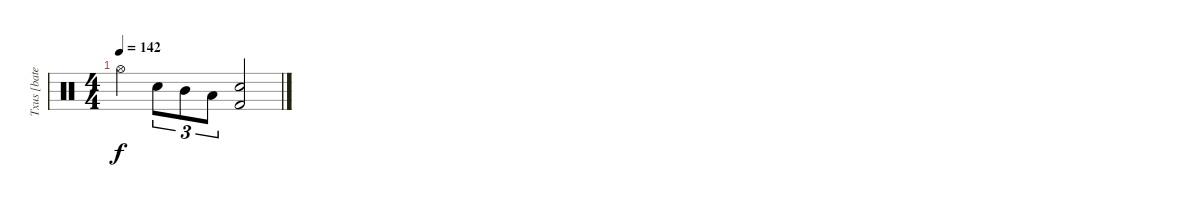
\track ("Txus [bateria]" "Txus [bate") {instrument percussion}
\staff {score}
\articulation defaults
\ts (4 4)
\tempo 142
\clef neutral
\ks c "Hi-Hat (open)".4{dy f} "Snare (hit) 2".8{tu (3 2)} "Mid Tom (hit)".8{tu (3 2)} "Low Tom (hit)".8{tu (3 2)}
("Snare (hit) 2" "Kick (hit) 2").2
